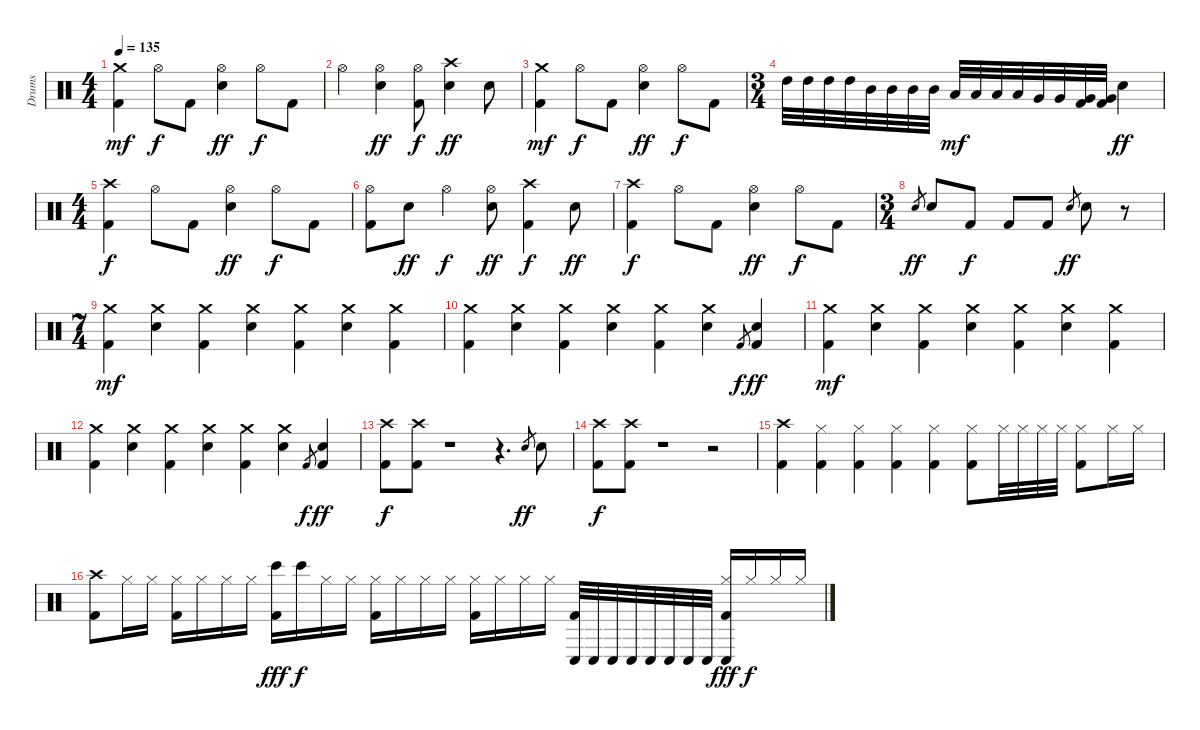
\track ("Drums" "Drums") {instrument percussion}
\staff {score}
\articulation defaults
\ts (4 4)
\tempo 135
\clef neutral
\ks c
("Kick (hit) 2" "Crash medium (hit)").4{dy mf} "Hi-Hat (open)".8{dy f} "Kick (hit) 2".8 ("Electric Snare (hit)" "Hi-Hat (open)").4{dy ff} "Hi-Hat (open)".8{dy f} "Kick (hit) 2".8 |
"Hi-Hat (open)".4 ("Electric Snare (hit)" "Hi-Hat (open)").4{dy ff} ("Kick (hit) 2" "Hi-Hat (open)").8{dy f} ("Electric Snare (hit)" "Crash high (hit)").4{dy ff} "Electric Snare (hit)".8 |
("Kick (hit) 2" "Crash medium (hit)").4{dy mf} "Hi-Hat (open)".8{dy f} "Kick (hit) 2".8 ("Electric Snare (hit)" "Hi-Hat (open)").4{dy ff} "Hi-Hat (open)".8{dy f} "Kick (hit) 2".8 |
\ts (3 4)
"High Tom (hit)".32 "High Tom (hit)".32 "High Tom (hit)".32 "High Tom (hit)".32 "Mid Tom (hit)".32 "Mid Tom (hit)".32 "Mid Tom (hit)".32 "Mid Tom (hit)".32 "Low Tom (hit)".32{dy mf} "Low Tom (hit)".32 "Low Tom (hit)".32 "Low Tom (hit)".32 "Very Low Tom (hit)".32 "Very Low Tom (hit)".32 ("Kick (hit) 2" "Very Low Tom (hit)").32 ("Kick (hit) 2" "Very Low Tom (hit)").32 "Electric Snare (hit)".4{dy ff} |
\ts (4 4)
("Kick (hit) 2" "Crash high (hit)").4{dy f} "Hi-Hat (open)".8 "Kick (hit) 2".8 ("Electric Snare (hit)" "Hi-Hat (open)").4{dy ff} "Hi-Hat (open)".8{dy f} "Kick (hit) 2".8 |
("Kick (hit) 2" "Hi-Hat (open)").8 "Electric Snare (hit)".8{dy ff} "Hi-Hat (open)".4{dy f} ("Electric Snare (hit)" "Hi-Hat (open)").8{dy ff} ("Kick (hit) 2" "Crash high (hit)").4{dy f} "Electric Snare (hit)".8{dy ff} |
("Kick (hit) 2" "Crash high (hit)").4{dy f} "Hi-Hat (open)".8 "Kick (hit) 2".8 ("Electric Snare (hit)" "Hi-Hat (open)").4{dy ff} "Hi-Hat (open)".8{dy f} "Kick (hit) 2".8 |
\ts (3 4)
"Electric Snare (hit)".8{gr dy ff} "Electric Snare (hit)".8 "Kick (hit) 2".8{dy f} "Kick (hit) 2".8 "Kick (hit) 2".8 "Electric Snare (hit)".8{gr dy ff} "Electric Snare (hit)".8 r.8 |
\ts (7 4)
("Kick (hit) 2" "Crash medium (hit)").4{dy mf} ("Electric Snare (hit)" "Crash medium (hit)").4 ("Kick (hit) 2" "Crash medium (hit)").4 ("Electric Snare (hit)" "Crash medium (hit)").4 ("Kick (hit) 2" "Crash medium (hit)").4 ("Electric Snare (hit)" "Crash medium (hit)").4 ("Kick (hit) 2" "Crash medium (hit)").4 |
("Kick (hit) 2" "Crash medium (hit)").4 ("Electric Snare (hit)" "Crash medium (hit)").4 ("Kick (hit) 2" "Crash medium (hit)").4 ("Electric Snare (hit)" "Crash medium (hit)").4 ("Kick (hit) 2" "Crash medium (hit)").4 ("Electric Snare (hit)" "Crash medium (hit)").4 "Kick (hit) 2".8{gr dy f} ("Kick (hit) 2" "Electric Snare (hit)").4{dy ff} |
("Kick (hit) 2" "Crash medium (hit)").4{dy mf} ("Electric Snare (hit)" "Crash medium (hit)").4 ("Kick (hit) 2" "Crash medium (hit)").4 ("Electric Snare (hit)" "Crash medium (hit)").4 ("Kick (hit) 2" "Crash medium (hit)").4 ("Electric Snare (hit)" "Crash medium (hit)").4 ("Kick (hit) 2" "Crash medium (hit)").4 |
("Kick (hit) 2" "Crash medium (hit)").4 ("Electric Snare (hit)" "Crash medium (hit)").4 ("Kick (hit) 2" "Crash medium (hit)").4 ("Electric Snare (hit)" "Crash medium (hit)").4 ("Kick (hit) 2" "Crash medium (hit)").4 ("Electric Snare (hit)" "Crash medium (hit)").4 "Kick (hit) 2".8{gr dy f} ("Kick (hit) 2" "Electric Snare (hit)").4{dy ff} |
("Kick (hit) 2" "Crash high (hit)").8{dy f} ("Kick (hit) 2" "Crash high (hit)").8 r.1 r.4{d} "Electric Snare (hit)".8{gr dy ff} "Electric Snare (hit)".8{volume 12} |
("Kick (hit) 2" "Crash high (hit)").8{dy f} ("Kick (hit) 2" "Crash high (hit)").8 r.1 r.2 |
("Kick (hit) 2" "Crash high (hit)").4 ("Kick (hit) 2" "Hi-Hat (closed)").4 ("Kick (hit) 2" "Hi-Hat (closed)").4 ("Kick (hit) 2" "Hi-Hat (closed)").4 ("Kick (hit) 2" "Hi-Hat (closed)").4 ("Kick (hit) 2" "Hi-Hat (closed)").8 "Hi-Hat (closed)".32 "Hi-Hat (closed)".32 "Hi-Hat (closed)".32 "Hi-Hat (closed)".32 ("Kick (hit) 2" "Hi-Hat (closed)").8 "Hi-Hat (closed)".16 "Hi-Hat (closed)".16 |
("Kick (hit) 2" "Crash high (hit)").8 "Hi-Hat (closed)".16 "Hi-Hat (closed)".16 ("Kick (hit) 2" "Hi-Hat (closed)").16 "Hi-Hat (closed)".16 "Hi-Hat (closed)".16 "Hi-Hat (closed)".16 ("Kick (hit) 2" "Bongo High (hit)").16{dy fff} "Bongo High (hit)".16{dy f} "Hi-Hat (closed)".16 "Hi-Hat (closed)".16 ("Kick (hit) 2" "Hi-Hat (closed)").16 "Hi-Hat (closed)".16 "Hi-Hat (closed)".16 "Hi-Hat (closed)".16 ("Kick (hit) 2" "Hi-Hat (closed)").16 "Hi-Hat (closed)".16 "Hi-Hat (closed)".16 "Hi-Hat (closed)".16 ("Kick (hit) 2" "Conga low (hit)").32 "Conga low (hit)".32 "Conga low (hit)".32 "Conga low (hit)".32 "Conga low (hit)".32 "Conga low (hit)".32 "Conga low (hit)".32 "Conga low (hit)".32 ("Kick (hit) 2" "Hi-Hat (closed)" "Conga low (hit)").16{dy fff} "Hi-Hat (closed)".16{dy f} "Hi-Hat (closed)".16 "Hi-Hat (closed)".16
